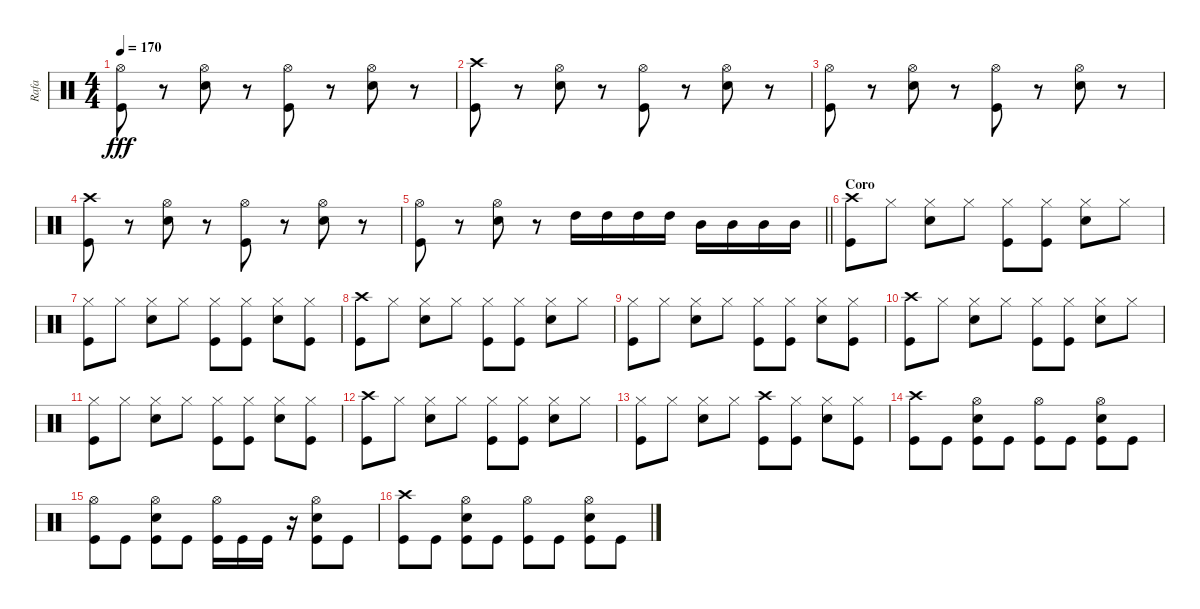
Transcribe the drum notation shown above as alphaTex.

\track ("Rafa" "Rafa") {instrument percussion}
\staff {score}
\articulation defaults
\ts (4 4)
\tempo 170
\clef neutral
\ks c
("Hi-Hat (open)" "Kick (hit)").8{dy fff} r.8 ("Hi-Hat (open)" "Electric Snare (hit)").8 r.8 ("Hi-Hat (open)" "Kick (hit)").8 r.8 ("Hi-Hat (open)" "Electric Snare (hit)").8 r.8 |
("Crash high (hit)" "Kick (hit)").8 r.8 ("Hi-Hat (open)" "Electric Snare (hit)").8 r.8 ("Hi-Hat (open)" "Kick (hit)").8 r.8 ("Hi-Hat (open)" "Electric Snare (hit)").8 r.8 |
("Hi-Hat (open)" "Kick (hit)").8 r.8 ("Hi-Hat (open)" "Electric Snare (hit)").8 r.8 ("Hi-Hat (open)" "Kick (hit)").8 r.8 ("Hi-Hat (open)" "Electric Snare (hit)").8 r.8 |
("Crash high (hit)" "Kick (hit)").8 r.8 ("Hi-Hat (open)" "Electric Snare (hit)").8 r.8 ("Hi-Hat (open)" "Kick (hit)").8 r.8 ("Hi-Hat (open)" "Electric Snare (hit)").8 r.8 |
\barLineRight lightlight
("Hi-Hat (open)" "Kick (hit)").8 r.8 ("Hi-Hat (open)" "Electric Snare (hit)").8 r.8 "High Tom (hit)".16 "High Tom (hit)".16 "High Tom (hit)".16 "High Tom (hit)".16 "Mid Tom (hit)".16 "Mid Tom (hit)".16 "Mid Tom (hit)".16 "Mid Tom (hit)".16 |
\section ("" "Coro")
("Crash high (hit)" "Kick (hit)").8 "Hi-Hat (closed)".8 ("Hi-Hat (closed)" "Electric Snare (hit)").8 "Hi-Hat (closed)".8 ("Hi-Hat (closed)" "Kick (hit)").8 ("Hi-Hat (closed)" "Kick (hit)").8 ("Hi-Hat (closed)" "Electric Snare (hit)").8 "Hi-Hat (closed)".8 |
("Hi-Hat (closed)" "Kick (hit)").8 "Hi-Hat (closed)".8 ("Hi-Hat (closed)" "Electric Snare (hit)").8 "Hi-Hat (closed)".8 ("Hi-Hat (closed)" "Kick (hit)").8 ("Hi-Hat (closed)" "Kick (hit)").8 ("Hi-Hat (closed)" "Electric Snare (hit)").8 ("Hi-Hat (closed)" "Kick (hit)").8 |
("Crash high (hit)" "Kick (hit)").8 "Hi-Hat (closed)".8 ("Hi-Hat (closed)" "Electric Snare (hit)").8 "Hi-Hat (closed)".8 ("Hi-Hat (closed)" "Kick (hit)").8 ("Hi-Hat (closed)" "Kick (hit)").8 ("Hi-Hat (closed)" "Electric Snare (hit)").8 "Hi-Hat (closed)".8 |
("Hi-Hat (closed)" "Kick (hit)").8 "Hi-Hat (closed)".8 ("Hi-Hat (closed)" "Electric Snare (hit)").8 "Hi-Hat (closed)".8 ("Hi-Hat (closed)" "Kick (hit)").8 ("Hi-Hat (closed)" "Kick (hit)").8 ("Hi-Hat (closed)" "Electric Snare (hit)").8 ("Hi-Hat (closed)" "Kick (hit)").8 |
("Crash high (hit)" "Kick (hit)").8 "Hi-Hat (closed)".8 ("Hi-Hat (closed)" "Electric Snare (hit)").8 "Hi-Hat (closed)".8 ("Hi-Hat (closed)" "Kick (hit)").8 ("Hi-Hat (closed)" "Kick (hit)").8 ("Hi-Hat (closed)" "Electric Snare (hit)").8 "Hi-Hat (closed)".8 |
("Hi-Hat (closed)" "Kick (hit)").8 "Hi-Hat (closed)".8 ("Hi-Hat (closed)" "Electric Snare (hit)").8 "Hi-Hat (closed)".8 ("Hi-Hat (closed)" "Kick (hit)").8 ("Hi-Hat (closed)" "Kick (hit)").8 ("Hi-Hat (closed)" "Electric Snare (hit)").8 ("Hi-Hat (closed)" "Kick (hit)").8 |
("Crash high (hit)" "Kick (hit)").8 "Hi-Hat (closed)".8 ("Hi-Hat (closed)" "Electric Snare (hit)").8 "Hi-Hat (closed)".8 ("Hi-Hat (closed)" "Kick (hit)").8 ("Hi-Hat (closed)" "Kick (hit)").8 ("Hi-Hat (closed)" "Electric Snare (hit)").8 "Hi-Hat (closed)".8 |
("Hi-Hat (closed)" "Kick (hit)").8 "Hi-Hat (closed)".8 ("Hi-Hat (closed)" "Electric Snare (hit)").8 "Hi-Hat (closed)".8 ("Crash high (hit)" "Kick (hit)").8 ("Hi-Hat (closed)" "Kick (hit)").8 ("Hi-Hat (closed)" "Electric Snare (hit)").8 ("Hi-Hat (closed)" "Kick (hit)").8 |
("Crash high (hit)" "Kick (hit)").8 "Kick (hit)".8 ("Hi-Hat (open)" "Electric Snare (hit)" "Kick (hit)").8 "Kick (hit)".8 ("Hi-Hat (open)" "Kick (hit)").8 "Kick (hit)".8 ("Hi-Hat (open)" "Electric Snare (hit)" "Kick (hit)").8 "Kick (hit)".8 |
("Hi-Hat (open)" "Kick (hit)").8 "Kick (hit)".8 ("Hi-Hat (open)" "Electric Snare (hit)" "Kick (hit)").8 "Kick (hit)".8 ("Hi-Hat (open)" "Kick (hit)").16 "Kick (hit)".16 "Kick (hit)".16 r.16 ("Hi-Hat (open)" "Electric Snare (hit)" "Kick (hit)").8 "Kick (hit)".8 |
("Crash high (hit)" "Kick (hit)").8 "Kick (hit)".8 ("Hi-Hat (open)" "Electric Snare (hit)" "Kick (hit)").8 "Kick (hit)".8 ("Hi-Hat (open)" "Kick (hit)").8 "Kick (hit)".8 ("Hi-Hat (open)" "Electric Snare (hit)" "Kick (hit)").8 "Kick (hit)".8
